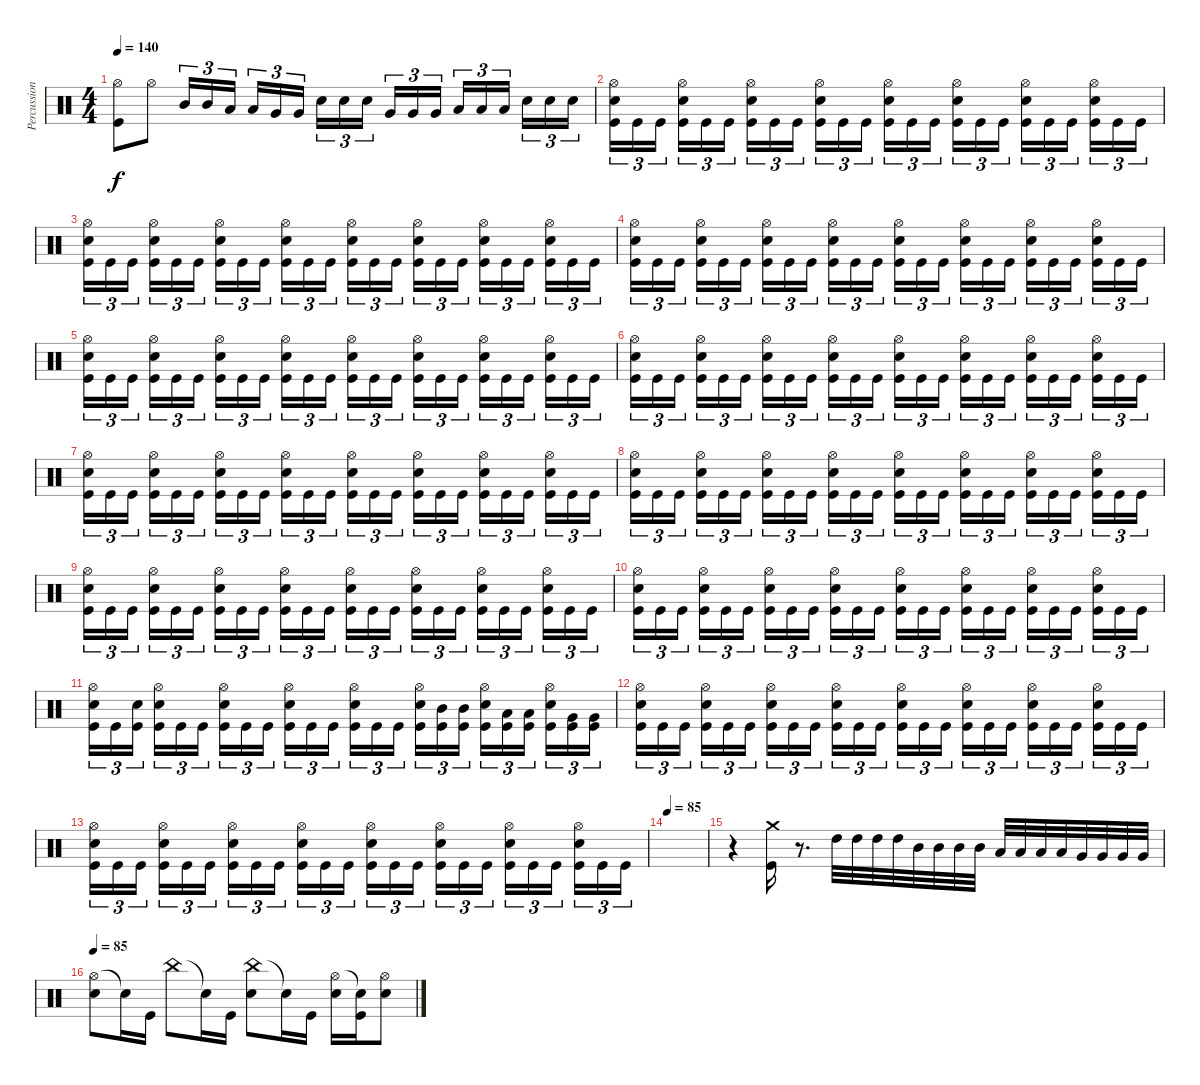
\track ("Percussion" "Percussion") {instrument percussion}
\staff {score}
\articulation defaults
\ts (4 4)
\tempo 140
\clef neutral
\ks c
("Hi-Hat (open)" "Kick (hit)").8{dy f} "Hi-Hat (open)".8 "Mid Tom (hit)".16{tu (3 2)} "Mid Tom (hit)".16{tu (3 2)} "Low Tom (hit)".16{tu (3 2)} "Low Tom (hit)".16{tu (3 2)} "Very Low Tom (hit)".16{tu (3 2)} "Very Low Tom (hit)".16{tu (3 2)} "Electric Snare (hit)".16{tu (3 2)} "Electric Snare (hit)".16{tu (3 2)} "Electric Snare (hit)".16{tu (3 2)} "Very Low Tom (hit)".16{tu (3 2)} "Very Low Tom (hit)".16{tu (3 2)} "Very Low Tom (hit)".16{tu (3 2)} "Low Floor Tom (hit)".16{tu (3 2)} "Low Floor Tom (hit)".16{tu (3 2)} "Low Floor Tom (hit)".16{tu (3 2)} "Electric Snare (hit)".16{tu (3 2)} "Electric Snare (hit)".16{tu (3 2)} "Electric Snare (hit)".16{tu (3 2)} |
("Hi-Hat (open)" "Electric Snare (hit)" "Kick (hit)").16{tu (3 2)} "Kick (hit)".16{tu (3 2)} "Kick (hit)".16{tu (3 2)} ("Hi-Hat (open)" "Electric Snare (hit)" "Kick (hit)").16{tu (3 2)} "Kick (hit)".16{tu (3 2)} "Kick (hit)".16{tu (3 2)} ("Hi-Hat (open)" "Electric Snare (hit)" "Kick (hit)").16{tu (3 2)} "Kick (hit)".16{tu (3 2)} "Kick (hit)".16{tu (3 2)} ("Hi-Hat (open)" "Electric Snare (hit)" "Kick (hit)").16{tu (3 2)} "Kick (hit)".16{tu (3 2)} "Kick (hit)".16{tu (3 2)} ("Hi-Hat (open)" "Electric Snare (hit)" "Kick (hit)").16{tu (3 2)} "Kick (hit)".16{tu (3 2)} "Kick (hit)".16{tu (3 2)} ("Hi-Hat (open)" "Electric Snare (hit)" "Kick (hit)").16{tu (3 2)} "Kick (hit)".16{tu (3 2)} "Kick (hit)".16{tu (3 2)} ("Hi-Hat (open)" "Electric Snare (hit)" "Kick (hit)").16{tu (3 2)} "Kick (hit)".16{tu (3 2)} "Kick (hit)".16{tu (3 2)} ("Hi-Hat (open)" "Electric Snare (hit)" "Kick (hit)").16{tu (3 2)} "Kick (hit)".16{tu (3 2)} "Kick (hit)".16{tu (3 2)} |
("Hi-Hat (open)" "Electric Snare (hit)" "Kick (hit)").16{tu (3 2)} "Kick (hit)".16{tu (3 2)} "Kick (hit)".16{tu (3 2)} ("Hi-Hat (open)" "Electric Snare (hit)" "Kick (hit)").16{tu (3 2)} "Kick (hit)".16{tu (3 2)} "Kick (hit)".16{tu (3 2)} ("Hi-Hat (open)" "Electric Snare (hit)" "Kick (hit)").16{tu (3 2)} "Kick (hit)".16{tu (3 2)} "Kick (hit)".16{tu (3 2)} ("Hi-Hat (open)" "Electric Snare (hit)" "Kick (hit)").16{tu (3 2)} "Kick (hit)".16{tu (3 2)} "Kick (hit)".16{tu (3 2)} ("Hi-Hat (open)" "Electric Snare (hit)" "Kick (hit)").16{tu (3 2)} "Kick (hit)".16{tu (3 2)} "Kick (hit)".16{tu (3 2)} ("Hi-Hat (open)" "Electric Snare (hit)" "Kick (hit)").16{tu (3 2)} "Kick (hit)".16{tu (3 2)} "Kick (hit)".16{tu (3 2)} ("Hi-Hat (open)" "Electric Snare (hit)" "Kick (hit)").16{tu (3 2)} "Kick (hit)".16{tu (3 2)} "Kick (hit)".16{tu (3 2)} ("Hi-Hat (open)" "Electric Snare (hit)" "Kick (hit)").16{tu (3 2)} "Kick (hit)".16{tu (3 2)} "Kick (hit)".16{tu (3 2)} |
("Hi-Hat (open)" "Electric Snare (hit)" "Kick (hit)").16{tu (3 2)} "Kick (hit)".16{tu (3 2)} "Kick (hit)".16{tu (3 2)} ("Hi-Hat (open)" "Electric Snare (hit)" "Kick (hit)").16{tu (3 2)} "Kick (hit)".16{tu (3 2)} "Kick (hit)".16{tu (3 2)} ("Hi-Hat (open)" "Electric Snare (hit)" "Kick (hit)").16{tu (3 2)} "Kick (hit)".16{tu (3 2)} "Kick (hit)".16{tu (3 2)} ("Hi-Hat (open)" "Electric Snare (hit)" "Kick (hit)").16{tu (3 2)} "Kick (hit)".16{tu (3 2)} "Kick (hit)".16{tu (3 2)} ("Hi-Hat (open)" "Electric Snare (hit)" "Kick (hit)").16{tu (3 2)} "Kick (hit)".16{tu (3 2)} "Kick (hit)".16{tu (3 2)} ("Hi-Hat (open)" "Electric Snare (hit)" "Kick (hit)").16{tu (3 2)} "Kick (hit)".16{tu (3 2)} "Kick (hit)".16{tu (3 2)} ("Hi-Hat (open)" "Electric Snare (hit)" "Kick (hit)").16{tu (3 2)} "Kick (hit)".16{tu (3 2)} "Kick (hit)".16{tu (3 2)} ("Hi-Hat (open)" "Electric Snare (hit)" "Kick (hit)").16{tu (3 2)} "Kick (hit)".16{tu (3 2)} "Kick (hit)".16{tu (3 2)} |
("Hi-Hat (open)" "Electric Snare (hit)" "Kick (hit)").16{tu (3 2)} "Kick (hit)".16{tu (3 2)} "Kick (hit)".16{tu (3 2)} ("Hi-Hat (open)" "Electric Snare (hit)" "Kick (hit)").16{tu (3 2)} "Kick (hit)".16{tu (3 2)} "Kick (hit)".16{tu (3 2)} ("Hi-Hat (open)" "Electric Snare (hit)" "Kick (hit)").16{tu (3 2)} "Kick (hit)".16{tu (3 2)} "Kick (hit)".16{tu (3 2)} ("Hi-Hat (open)" "Electric Snare (hit)" "Kick (hit)").16{tu (3 2)} "Kick (hit)".16{tu (3 2)} "Kick (hit)".16{tu (3 2)} ("Hi-Hat (open)" "Electric Snare (hit)" "Kick (hit)").16{tu (3 2)} "Kick (hit)".16{tu (3 2)} "Kick (hit)".16{tu (3 2)} ("Hi-Hat (open)" "Electric Snare (hit)" "Kick (hit)").16{tu (3 2)} "Kick (hit)".16{tu (3 2)} "Kick (hit)".16{tu (3 2)} ("Hi-Hat (open)" "Electric Snare (hit)" "Kick (hit)").16{tu (3 2)} "Kick (hit)".16{tu (3 2)} "Kick (hit)".16{tu (3 2)} ("Hi-Hat (open)" "Electric Snare (hit)" "Kick (hit)").16{tu (3 2)} "Kick (hit)".16{tu (3 2)} "Kick (hit)".16{tu (3 2)} |
("Hi-Hat (open)" "Electric Snare (hit)" "Kick (hit)").16{tu (3 2)} "Kick (hit)".16{tu (3 2)} "Kick (hit)".16{tu (3 2)} ("Hi-Hat (open)" "Electric Snare (hit)" "Kick (hit)").16{tu (3 2)} "Kick (hit)".16{tu (3 2)} "Kick (hit)".16{tu (3 2)} ("Hi-Hat (open)" "Electric Snare (hit)" "Kick (hit)").16{tu (3 2)} "Kick (hit)".16{tu (3 2)} "Kick (hit)".16{tu (3 2)} ("Hi-Hat (open)" "Electric Snare (hit)" "Kick (hit)").16{tu (3 2)} "Kick (hit)".16{tu (3 2)} "Kick (hit)".16{tu (3 2)} ("Hi-Hat (open)" "Electric Snare (hit)" "Kick (hit)").16{tu (3 2)} "Kick (hit)".16{tu (3 2)} "Kick (hit)".16{tu (3 2)} ("Hi-Hat (open)" "Electric Snare (hit)" "Kick (hit)").16{tu (3 2)} "Kick (hit)".16{tu (3 2)} "Kick (hit)".16{tu (3 2)} ("Hi-Hat (open)" "Electric Snare (hit)" "Kick (hit)").16{tu (3 2)} "Kick (hit)".16{tu (3 2)} "Kick (hit)".16{tu (3 2)} ("Hi-Hat (open)" "Electric Snare (hit)" "Kick (hit)").16{tu (3 2)} "Kick (hit)".16{tu (3 2)} "Kick (hit)".16{tu (3 2)} |
("Hi-Hat (open)" "Electric Snare (hit)" "Kick (hit)").16{tu (3 2)} "Kick (hit)".16{tu (3 2)} "Kick (hit)".16{tu (3 2)} ("Hi-Hat (open)" "Electric Snare (hit)" "Kick (hit)").16{tu (3 2)} "Kick (hit)".16{tu (3 2)} "Kick (hit)".16{tu (3 2)} ("Hi-Hat (open)" "Electric Snare (hit)" "Kick (hit)").16{tu (3 2)} "Kick (hit)".16{tu (3 2)} "Kick (hit)".16{tu (3 2)} ("Hi-Hat (open)" "Electric Snare (hit)" "Kick (hit)").16{tu (3 2)} "Kick (hit)".16{tu (3 2)} "Kick (hit)".16{tu (3 2)} ("Hi-Hat (open)" "Electric Snare (hit)" "Kick (hit)").16{tu (3 2)} "Kick (hit)".16{tu (3 2)} "Kick (hit)".16{tu (3 2)} ("Hi-Hat (open)" "Electric Snare (hit)" "Kick (hit)").16{tu (3 2)} "Kick (hit)".16{tu (3 2)} "Kick (hit)".16{tu (3 2)} ("Hi-Hat (open)" "Electric Snare (hit)" "Kick (hit)").16{tu (3 2)} "Kick (hit)".16{tu (3 2)} "Kick (hit)".16{tu (3 2)} ("Hi-Hat (open)" "Electric Snare (hit)" "Kick (hit)").16{tu (3 2)} "Kick (hit)".16{tu (3 2)} "Kick (hit)".16{tu (3 2)} |
("Hi-Hat (open)" "Electric Snare (hit)" "Kick (hit)").16{tu (3 2)} "Kick (hit)".16{tu (3 2)} "Kick (hit)".16{tu (3 2)} ("Hi-Hat (open)" "Electric Snare (hit)" "Kick (hit)").16{tu (3 2)} "Kick (hit)".16{tu (3 2)} "Kick (hit)".16{tu (3 2)} ("Hi-Hat (open)" "Electric Snare (hit)" "Kick (hit)").16{tu (3 2)} "Kick (hit)".16{tu (3 2)} "Kick (hit)".16{tu (3 2)} ("Hi-Hat (open)" "Electric Snare (hit)" "Kick (hit)").16{tu (3 2)} "Kick (hit)".16{tu (3 2)} "Kick (hit)".16{tu (3 2)} ("Hi-Hat (open)" "Electric Snare (hit)" "Kick (hit)").16{tu (3 2)} "Kick (hit)".16{tu (3 2)} "Kick (hit)".16{tu (3 2)} ("Hi-Hat (open)" "Electric Snare (hit)" "Kick (hit)").16{tu (3 2)} "Kick (hit)".16{tu (3 2)} "Kick (hit)".16{tu (3 2)} ("Hi-Hat (open)" "Electric Snare (hit)" "Kick (hit)").16{tu (3 2)} "Kick (hit)".16{tu (3 2)} "Kick (hit)".16{tu (3 2)} ("Hi-Hat (open)" "Electric Snare (hit)" "Kick (hit)").16{tu (3 2)} "Kick (hit)".16{tu (3 2)} "Kick (hit)".16{tu (3 2)} |
("Hi-Hat (open)" "Electric Snare (hit)" "Kick (hit)").16{tu (3 2)} "Kick (hit)".16{tu (3 2)} "Kick (hit)".16{tu (3 2)} ("Hi-Hat (open)" "Electric Snare (hit)" "Kick (hit)").16{tu (3 2)} "Kick (hit)".16{tu (3 2)} "Kick (hit)".16{tu (3 2)} ("Hi-Hat (open)" "Electric Snare (hit)" "Kick (hit)").16{tu (3 2)} "Kick (hit)".16{tu (3 2)} "Kick (hit)".16{tu (3 2)} ("Hi-Hat (open)" "Electric Snare (hit)" "Kick (hit)").16{tu (3 2)} "Kick (hit)".16{tu (3 2)} "Kick (hit)".16{tu (3 2)} ("Hi-Hat (open)" "Electric Snare (hit)" "Kick (hit)").16{tu (3 2)} "Kick (hit)".16{tu (3 2)} "Kick (hit)".16{tu (3 2)} ("Hi-Hat (open)" "Electric Snare (hit)" "Kick (hit)").16{tu (3 2)} "Kick (hit)".16{tu (3 2)} "Kick (hit)".16{tu (3 2)} ("Hi-Hat (open)" "Electric Snare (hit)" "Kick (hit)").16{tu (3 2)} "Kick (hit)".16{tu (3 2)} "Kick (hit)".16{tu (3 2)} ("Hi-Hat (open)" "Electric Snare (hit)" "Kick (hit)").16{tu (3 2)} "Kick (hit)".16{tu (3 2)} "Kick (hit)".16{tu (3 2)} |
("Hi-Hat (open)" "Electric Snare (hit)" "Kick (hit)").16{tu (3 2)} "Kick (hit)".16{tu (3 2)} "Kick (hit)".16{tu (3 2)} ("Hi-Hat (open)" "Electric Snare (hit)" "Kick (hit)").16{tu (3 2)} "Kick (hit)".16{tu (3 2)} "Kick (hit)".16{tu (3 2)} ("Hi-Hat (open)" "Electric Snare (hit)" "Kick (hit)").16{tu (3 2)} "Kick (hit)".16{tu (3 2)} "Kick (hit)".16{tu (3 2)} ("Hi-Hat (open)" "Electric Snare (hit)" "Kick (hit)").16{tu (3 2)} "Kick (hit)".16{tu (3 2)} "Kick (hit)".16{tu (3 2)} ("Hi-Hat (open)" "Electric Snare (hit)" "Kick (hit)").16{tu (3 2)} "Kick (hit)".16{tu (3 2)} "Kick (hit)".16{tu (3 2)} ("Hi-Hat (open)" "Electric Snare (hit)" "Kick (hit)").16{tu (3 2)} "Kick (hit)".16{tu (3 2)} "Kick (hit)".16{tu (3 2)} ("Hi-Hat (open)" "Electric Snare (hit)" "Kick (hit)").16{tu (3 2)} "Kick (hit)".16{tu (3 2)} "Kick (hit)".16{tu (3 2)} ("Hi-Hat (open)" "Electric Snare (hit)" "Kick (hit)").16{tu (3 2)} "Kick (hit)".16{tu (3 2)} "Kick (hit)".16{tu (3 2)} |
("Hi-Hat (open)" "Electric Snare (hit)" "Kick (hit)").16{tu (3 2)} "Kick (hit)".16{tu (3 2)} ("Electric Snare (hit)" "Kick (hit)").16{tu (3 2)} ("Hi-Hat (open)" "Electric Snare (hit)" "Kick (hit)").16{tu (3 2)} "Kick (hit)".16{tu (3 2)} "Kick (hit)".16{tu (3 2)} ("Hi-Hat (open)" "Electric Snare (hit)" "Kick (hit)").16{tu (3 2)} "Kick (hit)".16{tu (3 2)} "Kick (hit)".16{tu (3 2)} ("Hi-Hat (open)" "Electric Snare (hit)" "Kick (hit)").16{tu (3 2)} "Kick (hit)".16{tu (3 2)} "Kick (hit)".16{tu (3 2)} ("Hi-Hat (open)" "Electric Snare (hit)" "Kick (hit)").16{tu (3 2)} "Kick (hit)".16{tu (3 2)} "Kick (hit)".16{tu (3 2)} ("Hi-Hat (open)" "Electric Snare (hit)" "Kick (hit)").16{tu (3 2)} ("Mid Tom (hit)" "Kick (hit)").16{tu (3 2)} ("Mid Tom (hit)" "Kick (hit)").16{tu (3 2)} ("Hi-Hat (open)" "Electric Snare (hit)" "Kick (hit)").16{tu (3 2)} ("Low Tom (hit)" "Kick (hit)").16{tu (3 2)} ("Low Tom (hit)" "Kick (hit)").16{tu (3 2)} ("Hi-Hat (open)" "Electric Snare (hit)" "Kick (hit)").16{tu (3 2)} ("Very Low Tom (hit)" "Kick (hit)").16{tu (3 2)} ("Very Low Tom (hit)" "Kick (hit)").16{tu (3 2)} |
("Hi-Hat (open)" "Electric Snare (hit)" "Kick (hit)").16{tu (3 2)} "Kick (hit)".16{tu (3 2)} "Kick (hit)".16{tu (3 2)} ("Hi-Hat (open)" "Electric Snare (hit)" "Kick (hit)").16{tu (3 2)} "Kick (hit)".16{tu (3 2)} "Kick (hit)".16{tu (3 2)} ("Hi-Hat (open)" "Electric Snare (hit)" "Kick (hit)").16{tu (3 2)} "Kick (hit)".16{tu (3 2)} "Kick (hit)".16{tu (3 2)} ("Hi-Hat (open)" "Electric Snare (hit)" "Kick (hit)").16{tu (3 2)} "Kick (hit)".16{tu (3 2)} "Kick (hit)".16{tu (3 2)} ("Hi-Hat (open)" "Electric Snare (hit)" "Kick (hit)").16{tu (3 2)} "Kick (hit)".16{tu (3 2)} "Kick (hit)".16{tu (3 2)} ("Hi-Hat (open)" "Electric Snare (hit)" "Kick (hit)").16{tu (3 2)} "Kick (hit)".16{tu (3 2)} "Kick (hit)".16{tu (3 2)} ("Hi-Hat (open)" "Electric Snare (hit)" "Kick (hit)").16{tu (3 2)} "Kick (hit)".16{tu (3 2)} "Kick (hit)".16{tu (3 2)} ("Hi-Hat (open)" "Electric Snare (hit)" "Kick (hit)").16{tu (3 2)} "Kick (hit)".16{tu (3 2)} "Kick (hit)".16{tu (3 2)} |
("Hi-Hat (open)" "Electric Snare (hit)" "Kick (hit)").16{tu (3 2)} "Kick (hit)".16{tu (3 2)} "Kick (hit)".16{tu (3 2)} ("Hi-Hat (open)" "Electric Snare (hit)" "Kick (hit)").16{tu (3 2)} "Kick (hit)".16{tu (3 2)} "Kick (hit)".16{tu (3 2)} ("Hi-Hat (open)" "Electric Snare (hit)" "Kick (hit)").16{tu (3 2)} "Kick (hit)".16{tu (3 2)} "Kick (hit)".16{tu (3 2)} ("Hi-Hat (open)" "Electric Snare (hit)" "Kick (hit)").16{tu (3 2)} "Kick (hit)".16{tu (3 2)} "Kick (hit)".16{tu (3 2)} ("Hi-Hat (open)" "Electric Snare (hit)" "Kick (hit)").16{tu (3 2)} "Kick (hit)".16{tu (3 2)} "Kick (hit)".16{tu (3 2)} ("Hi-Hat (open)" "Electric Snare (hit)" "Kick (hit)").16{tu (3 2)} "Kick (hit)".16{tu (3 2)} "Kick (hit)".16{tu (3 2)} ("Hi-Hat (open)" "Electric Snare (hit)" "Kick (hit)").16{tu (3 2)} "Kick (hit)".16{tu (3 2)} "Kick (hit)".16{tu (3 2)} ("Hi-Hat (open)" "Electric Snare (hit)" "Kick (hit)").16{tu (3 2)} "Kick (hit)".16{tu (3 2)} "Kick (hit)".16{tu (3 2)} |
\tempo 85
|
r.4 ("Crash medium (hit)" "Kick (hit)").16 r.8{d} "High Tom (hit)".32 "High Tom (hit)".32 "High Tom (hit)".32 "High Tom (hit)".32 "Mid Tom (hit)".32 "Mid Tom (hit)".32 "Mid Tom (hit)".32 "Mid Tom (hit)".32 "Low Tom (hit)".32 "Low Tom (hit)".32 "Low Tom (hit)".32 "Low Tom (hit)".32 "Very Low Tom (hit)".32 "Very Low Tom (hit)".32 "Very Low Tom (hit)".32 "Very Low Tom (hit)".32 |
\tempo 85
("Hi-Hat (open)" "Electric Snare (hit)").8 "Snare (hit)"{t}.16 "Kick (hit)".16 "China (hit)".8 "Snare (hit)"{t}.16 "Kick (hit)".16 ("China (hit)" "Electric Snare (hit)").8 "Snare (hit)"{t}.16 "Kick (hit)".16 ("Hi-Hat (open)" "Electric Snare (hit)").16 ("Snare (hit)"{t} "Kick (hit)").16 ("Hi-Hat (open)" "Electric Snare (hit)").8
